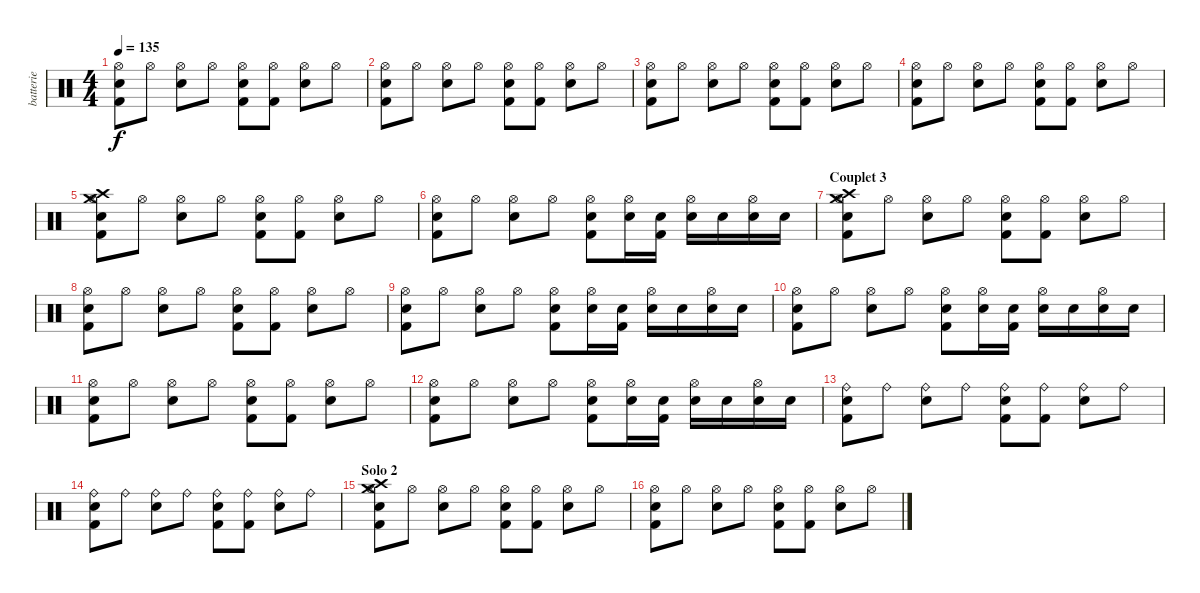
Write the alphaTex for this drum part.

\track ("batterie" "batterie") {instrument percussion}
\staff {score}
\articulation defaults
\ts (4 4)
\tempo 135
\clef neutral
\ks c
("Kick (hit) 2" "Electric Snare (hit)" "Hi-Hat (open)").8{dy f} "Hi-Hat (open)".8 ("Electric Snare (hit)" "Hi-Hat (open)").8 "Hi-Hat (open)".8 ("Kick (hit) 2" "Electric Snare (hit)" "Hi-Hat (open)").8 ("Kick (hit) 2" "Hi-Hat (open)").8 ("Electric Snare (hit)" "Hi-Hat (open)").8 "Hi-Hat (open)".8 |
("Kick (hit) 2" "Electric Snare (hit)" "Hi-Hat (open)").8 "Hi-Hat (open)".8 ("Electric Snare (hit)" "Hi-Hat (open)").8 "Hi-Hat (open)".8 ("Kick (hit) 2" "Electric Snare (hit)" "Hi-Hat (open)").8 ("Kick (hit) 2" "Hi-Hat (open)").8 ("Electric Snare (hit)" "Hi-Hat (open)").8 "Hi-Hat (open)".8 |
("Kick (hit) 2" "Electric Snare (hit)" "Hi-Hat (open)").8 "Hi-Hat (open)".8 ("Electric Snare (hit)" "Hi-Hat (open)").8 "Hi-Hat (open)".8 ("Kick (hit) 2" "Electric Snare (hit)" "Hi-Hat (open)").8 ("Kick (hit) 2" "Hi-Hat (open)").8 ("Electric Snare (hit)" "Hi-Hat (open)").8 "Hi-Hat (open)".8 |
("Kick (hit) 2" "Electric Snare (hit)" "Hi-Hat (open)").8 "Hi-Hat (open)".8 ("Electric Snare (hit)" "Hi-Hat (open)").8 "Hi-Hat (open)".8 ("Kick (hit) 2" "Electric Snare (hit)" "Hi-Hat (open)").8 ("Kick (hit) 2" "Hi-Hat (open)").8 ("Electric Snare (hit)" "Hi-Hat (open)").8 "Hi-Hat (open)".8 |
("Kick (hit) 2" "Crash medium (hit)" "Electric Snare (hit)" "Crash high (hit)" "Hi-Hat (open)").8 "Hi-Hat (open)".8 ("Electric Snare (hit)" "Hi-Hat (open)").8 "Hi-Hat (open)".8 ("Kick (hit) 2" "Electric Snare (hit)" "Hi-Hat (open)").8 ("Kick (hit) 2" "Hi-Hat (open)").8 ("Electric Snare (hit)" "Hi-Hat (open)").8 "Hi-Hat (open)".8 |
("Kick (hit) 2" "Electric Snare (hit)" "Hi-Hat (open)").8 "Hi-Hat (open)".8 ("Electric Snare (hit)" "Hi-Hat (open)").8 "Hi-Hat (open)".8 ("Kick (hit) 2" "Electric Snare (hit)" "Hi-Hat (open)").8 ("Electric Snare (hit)" "Hi-Hat (open)").16 ("Kick (hit) 2" "Electric Snare (hit)").16 ("Electric Snare (hit)" "Hi-Hat (open)").16 "Electric Snare (hit)".16 ("Electric Snare (hit)" "Hi-Hat (open)").16 "Electric Snare (hit)".16 |
\section ("" "Couplet 3")
("Kick (hit) 2" "Crash high (hit)" "Electric Snare (hit)" "Crash medium (hit)" "Hi-Hat (open)").8 "Hi-Hat (open)".8 ("Electric Snare (hit)" "Hi-Hat (open)").8 "Hi-Hat (open)".8 ("Kick (hit) 2" "Electric Snare (hit)" "Hi-Hat (open)").8 ("Kick (hit) 2" "Hi-Hat (open)").8 ("Electric Snare (hit)" "Hi-Hat (open)").8 "Hi-Hat (open)".8 |
("Kick (hit) 2" "Electric Snare (hit)" "Hi-Hat (open)").8 "Hi-Hat (open)".8 ("Electric Snare (hit)" "Hi-Hat (open)").8 "Hi-Hat (open)".8 ("Kick (hit) 2" "Electric Snare (hit)" "Hi-Hat (open)").8 ("Kick (hit) 2" "Hi-Hat (open)").8 ("Electric Snare (hit)" "Hi-Hat (open)").8 "Hi-Hat (open)".8 |
("Kick (hit) 2" "Electric Snare (hit)" "Hi-Hat (open)").8 "Hi-Hat (open)".8 ("Electric Snare (hit)" "Hi-Hat (open)").8 "Hi-Hat (open)".8 ("Kick (hit) 2" "Electric Snare (hit)" "Hi-Hat (open)").8 ("Electric Snare (hit)" "Hi-Hat (open)").16 ("Kick (hit) 2" "Electric Snare (hit)").16 ("Electric Snare (hit)" "Hi-Hat (open)").16 "Electric Snare (hit)".16 ("Electric Snare (hit)" "Hi-Hat (open)").16 "Electric Snare (hit)".16 |
("Kick (hit) 2" "Electric Snare (hit)" "Hi-Hat (open)").8 "Hi-Hat (open)".8 ("Electric Snare (hit)" "Hi-Hat (open)").8 "Hi-Hat (open)".8 ("Kick (hit) 2" "Electric Snare (hit)" "Hi-Hat (open)").8 ("Electric Snare (hit)" "Hi-Hat (open)").16 ("Kick (hit) 2" "Electric Snare (hit)").16 ("Electric Snare (hit)" "Hi-Hat (open)").16 "Electric Snare (hit)".16 ("Electric Snare (hit)" "Hi-Hat (open)").16 "Electric Snare (hit)".16 |
("Kick (hit) 2" "Electric Snare (hit)" "Hi-Hat (open)").8 "Hi-Hat (open)".8 ("Electric Snare (hit)" "Hi-Hat (open)").8 "Hi-Hat (open)".8 ("Kick (hit) 2" "Electric Snare (hit)" "Hi-Hat (open)").8 ("Kick (hit) 2" "Hi-Hat (open)").8 ("Electric Snare (hit)" "Hi-Hat (open)").8 "Hi-Hat (open)".8 |
("Kick (hit) 2" "Electric Snare (hit)" "Hi-Hat (open)").8 "Hi-Hat (open)".8 ("Electric Snare (hit)" "Hi-Hat (open)").8 "Hi-Hat (open)".8 ("Kick (hit) 2" "Electric Snare (hit)" "Hi-Hat (open)").8 ("Electric Snare (hit)" "Hi-Hat (open)").16 ("Kick (hit) 2" "Electric Snare (hit)").16 ("Electric Snare (hit)" "Hi-Hat (open)").16 "Electric Snare (hit)".16 ("Electric Snare (hit)" "Hi-Hat (open)").16 "Electric Snare (hit)".16 |
("Kick (hit) 2" "Electric Snare (hit)" "Ride (bell)").8 "Ride (bell)".8 ("Electric Snare (hit)" "Ride (bell)").8 "Ride (bell)".8 ("Kick (hit) 2" "Electric Snare (hit)" "Ride (bell)").8 ("Kick (hit) 2" "Ride (bell)").8 ("Electric Snare (hit)" "Ride (bell)").8 "Ride (bell)".8 |
("Kick (hit) 2" "Electric Snare (hit)" "Ride (bell)").8 "Ride (bell)".8 ("Electric Snare (hit)" "Ride (bell)").8 "Ride (bell)".8 ("Kick (hit) 2" "Electric Snare (hit)" "Ride (bell)").8 ("Kick (hit) 2" "Ride (bell)").8 ("Electric Snare (hit)" "Ride (bell)").8 "Ride (bell)".8 |
\section ("" "Solo 2")
("Kick (hit) 2" "Crash medium (hit)" "Electric Snare (hit)" "Crash high (hit)" "Hi-Hat (open)").8 "Hi-Hat (open)".8 ("Electric Snare (hit)" "Hi-Hat (open)").8 "Hi-Hat (open)".8 ("Kick (hit) 2" "Electric Snare (hit)" "Hi-Hat (open)").8 ("Kick (hit) 2" "Hi-Hat (open)").8 ("Electric Snare (hit)" "Hi-Hat (open)").8 "Hi-Hat (open)".8 |
("Kick (hit) 2" "Electric Snare (hit)" "Hi-Hat (open)").8 "Hi-Hat (open)".8 ("Electric Snare (hit)" "Hi-Hat (open)").8 "Hi-Hat (open)".8 ("Kick (hit) 2" "Electric Snare (hit)" "Hi-Hat (open)").8 ("Kick (hit) 2" "Hi-Hat (open)").8 ("Electric Snare (hit)" "Hi-Hat (open)").8 "Hi-Hat (open)".8
